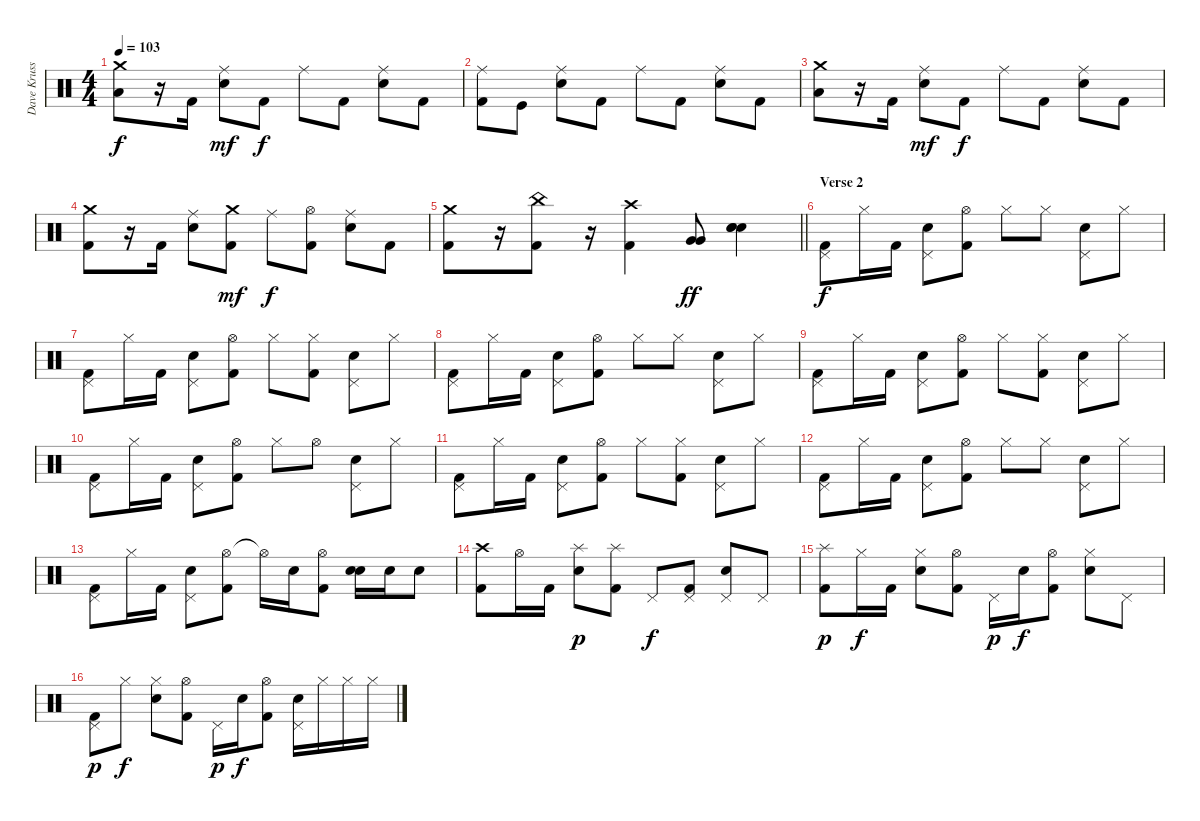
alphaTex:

\track ("Dave Krussen" "Dave Kruss") {instrument percussion}
\staff {score}
\articulation defaults
\ts (4 4)
\tempo 103
\clef neutral
\ks c
("Crash medium (hit)" "Low Floor Tom (hit)").8{dy f} r.16 "Kick (hit) 2".16 ("Ride (middle)" "Electric Snare (hit)").8{dy mf} "Kick (hit) 2".8{dy f} "Ride (middle)".8 "Kick (hit) 2".8 ("Ride (middle)" "Electric Snare (hit)").8 "Kick (hit) 2".8 |
("Ride (middle)" "Kick (hit) 2").8 "Kick (hit)".8 ("Ride (middle)" "Electric Snare (hit)").8 "Kick (hit) 2".8 "Ride (middle)".8 "Kick (hit) 2".8 ("Ride (middle)" "Electric Snare (hit)").8 "Kick (hit) 2".8 |
("Crash medium (hit)" "Low Floor Tom (hit)").8 r.16 "Kick (hit) 2".16 ("Ride (middle)" "Electric Snare (hit)").8{dy mf} "Kick (hit) 2".8{dy f} "Ride (middle)".8 "Kick (hit) 2".8 ("Ride (middle)" "Electric Snare (hit)").8 "Kick (hit) 2".8 |
("Crash medium (hit)" "Kick (hit) 2").8 r.16 "Kick (hit) 2".16 ("Ride (middle)" "Electric Snare (hit)").8 ("Crash medium (hit)" "Kick (hit) 2").8{dy mf} "Ride (middle)".8{dy f} ("Hi-Hat (open)" "Kick (hit) 2").8 ("Ride (middle)" "Electric Snare (hit)").8 "Kick (hit) 2".8 |
\barLineRight lightlight
("Crash medium (hit)" "Kick (hit) 2").8 r.16 ("China (hit)" "Kick (hit) 2").8 r.16 ("Crash high (hit)" "Kick (hit) 2").4 ("Very Low Tom (hit)" "Very Low Tom (hit)").8{dy ff} ("Snare (hit) 2" "Electric Snare (hit)" "Electric Snare (hit)").4 |
\section ("" "Verse 2")
("Pedal Hi-Hat (hit)" "Kick (hit) 2").8{dy f} "Hi-Hat (closed)".16 "Kick (hit) 2".16 ("Pedal Hi-Hat (hit)" "Electric Snare (hit)").8 ("Hi-Hat (open)" "Kick (hit) 2").8 "Hi-Hat (closed)".8 "Hi-Hat (closed)".8 ("Pedal Hi-Hat (hit)" "Electric Snare (hit)").8 "Hi-Hat (closed)".8 |
("Pedal Hi-Hat (hit)" "Kick (hit) 2").8 "Hi-Hat (closed)".16 "Kick (hit) 2".16 ("Pedal Hi-Hat (hit)" "Electric Snare (hit)").8 ("Hi-Hat (open)" "Kick (hit) 2").8 "Hi-Hat (closed)".8 ("Hi-Hat (closed)" "Kick (hit) 2").8 ("Pedal Hi-Hat (hit)" "Electric Snare (hit)").8 "Hi-Hat (closed)".8 |
("Pedal Hi-Hat (hit)" "Kick (hit) 2").8 "Hi-Hat (closed)".16 "Kick (hit) 2".16 ("Pedal Hi-Hat (hit)" "Electric Snare (hit)").8 ("Hi-Hat (open)" "Kick (hit) 2").8 "Hi-Hat (closed)".8 "Hi-Hat (closed)".8 ("Pedal Hi-Hat (hit)" "Electric Snare (hit)").8 "Hi-Hat (closed)".8 |
("Pedal Hi-Hat (hit)" "Kick (hit) 2").8 "Hi-Hat (closed)".16 "Kick (hit) 2".16 ("Pedal Hi-Hat (hit)" "Electric Snare (hit)").8 ("Hi-Hat (open)" "Kick (hit) 2").8 "Hi-Hat (closed)".8 ("Hi-Hat (closed)" "Kick (hit) 2").8 ("Pedal Hi-Hat (hit)" "Electric Snare (hit)").8 "Hi-Hat (closed)".8 |
("Pedal Hi-Hat (hit)" "Kick (hit) 2").8 "Hi-Hat (closed)".16 "Kick (hit) 2".16 ("Pedal Hi-Hat (hit)" "Electric Snare (hit)").8 ("Hi-Hat (open)" "Kick (hit) 2").8 "Hi-Hat (closed)".8 "Hi-Hat (open)".8 ("Pedal Hi-Hat (hit)" "Electric Snare (hit)").8 "Hi-Hat (closed)".8 |
("Pedal Hi-Hat (hit)" "Kick (hit) 2").8 "Hi-Hat (closed)".16 "Kick (hit) 2".16 ("Pedal Hi-Hat (hit)" "Electric Snare (hit)").8 ("Hi-Hat (open)" "Kick (hit) 2").8 "Hi-Hat (closed)".8 ("Hi-Hat (closed)" "Kick (hit) 2").8 ("Pedal Hi-Hat (hit)" "Electric Snare (hit)").8 "Hi-Hat (closed)".8 |
("Pedal Hi-Hat (hit)" "Kick (hit) 2").8 "Hi-Hat (closed)".16 "Kick (hit) 2".16 ("Pedal Hi-Hat (hit)" "Electric Snare (hit)").8 ("Hi-Hat (open)" "Kick (hit) 2").8 "Hi-Hat (closed)".8 "Hi-Hat (closed)".8 ("Pedal Hi-Hat (hit)" "Electric Snare (hit)").8 "Hi-Hat (closed)".8 |
("Pedal Hi-Hat (hit)" "Kick (hit) 2").8 "Hi-Hat (closed)".16 "Kick (hit) 2".16 ("Pedal Hi-Hat (hit)" "Electric Snare (hit)").8 ("Hi-Hat (open)" "Kick (hit) 2").8 "Hi-Hat (open)"{t}.16 "Electric Snare (hit)".16 ("Hi-Hat (open)" "Kick (hit) 2").8 ("Electric Snare (hit)" "Electric Snare (hit)").16{bd 120} "Electric Snare (hit)".16 "Electric Snare (hit)".8 |
("Crash high (hit)" "Kick (hit) 2").8 "Hi-Hat (open)".16 "Kick (hit) 2".16 ("Splash (hit)" "Electric Snare (hit)").8{dy p} ("Splash (hit)" "Kick (hit) 2").8 "Pedal Hi-Hat (hit)".8{dy f} ("Pedal Hi-Hat (hit)" "Kick (hit) 2").8 ("Pedal Hi-Hat (hit)" "Electric Snare (hit)").8 "Pedal Hi-Hat (hit)".8 |
("Splash (hit)" "Kick (hit) 2").8{dy p} "Hi-Hat (closed)".16{dy f} "Kick (hit) 2".16 ("Hi-Hat (closed)" "Electric Snare (hit)").8 ("Hi-Hat (open)" "Kick (hit) 2").8 "Pedal Hi-Hat (hit)".16{dy p} "Electric Snare (hit)".16{dy f} ("Hi-Hat (open)" "Kick (hit) 2").8 ("Hi-Hat (closed)" "Electric Snare (hit)").8 "Pedal Hi-Hat (hit)".8 |
("Pedal Hi-Hat (hit)" "Kick (hit) 2").8{dy p} "Hi-Hat (closed)".8{dy f} ("Hi-Hat (closed)" "Electric Snare (hit)").8 ("Hi-Hat (open)" "Kick (hit) 2").8 "Pedal Hi-Hat (hit)".16{dy p} "Electric Snare (hit)".16{dy f} ("Hi-Hat (open)" "Kick (hit) 2").8 ("Pedal Hi-Hat (hit)" "Electric Snare (hit)").16 "Hi-Hat (closed)".16 "Hi-Hat (closed)".16 "Hi-Hat (closed)".16
